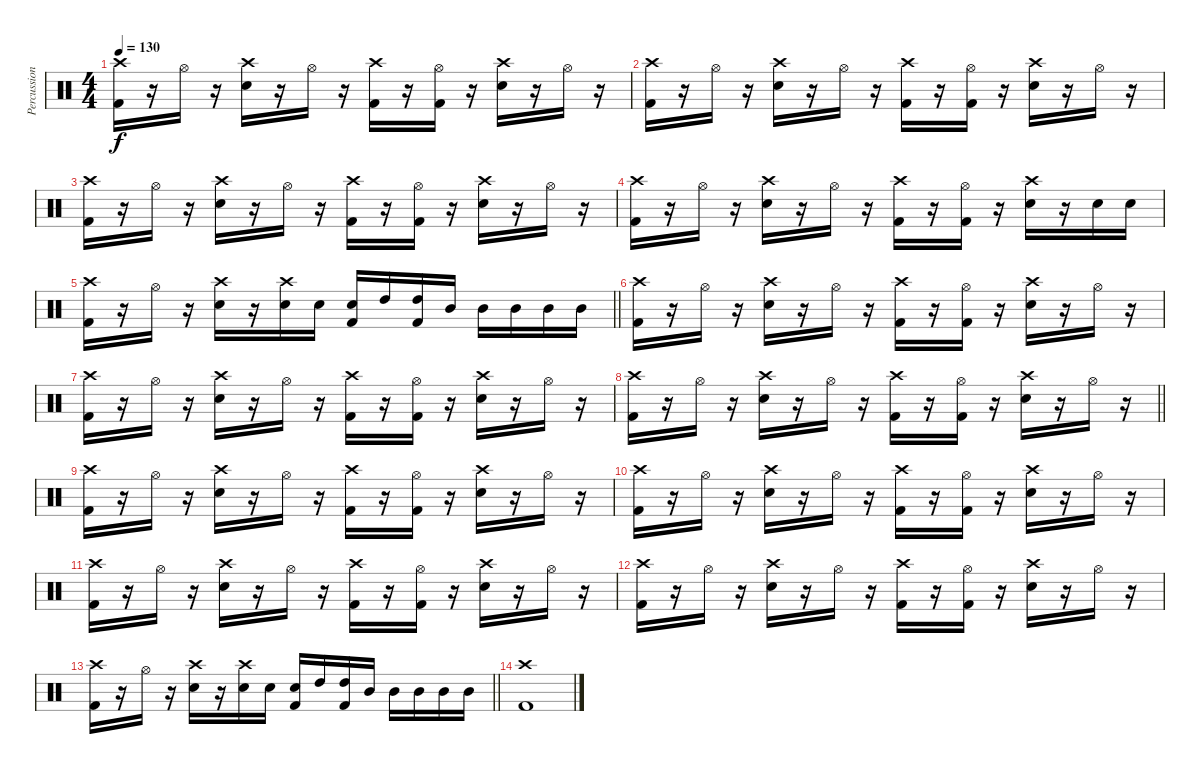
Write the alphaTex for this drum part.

\track ("Percussion" "Percussion") {instrument percussion}
\staff {score}
\articulation defaults
\ts (4 4)
\tempo 130
\clef neutral
\ks c
("Crash high (hit)" "Kick (hit) 2").16{dy f} r.16 "Hi-Hat (open)".16 r.16 ("Crash high (hit)" "Snare (hit) 2").16 r.16 "Hi-Hat (open)".16 r.16 ("Crash high (hit)" "Kick (hit) 2").16 r.16 ("Hi-Hat (open)" "Kick (hit) 2").16 r.16 ("Crash high (hit)" "Snare (hit) 2").16 r.16 "Hi-Hat (open)".16 r.16 |
("Crash high (hit)" "Kick (hit) 2").16 r.16 "Hi-Hat (open)".16 r.16 ("Crash high (hit)" "Snare (hit) 2").16 r.16 "Hi-Hat (open)".16 r.16 ("Crash high (hit)" "Kick (hit) 2").16 r.16 ("Hi-Hat (open)" "Kick (hit) 2").16 r.16 ("Crash high (hit)" "Snare (hit) 2").16 r.16 "Hi-Hat (open)".16 r.16 |
("Crash high (hit)" "Kick (hit) 2").16 r.16 "Hi-Hat (open)".16 r.16 ("Crash high (hit)" "Snare (hit) 2").16 r.16 "Hi-Hat (open)".16 r.16 ("Crash high (hit)" "Kick (hit) 2").16 r.16 ("Hi-Hat (open)" "Kick (hit) 2").16 r.16 ("Crash high (hit)" "Snare (hit) 2").16 r.16 "Hi-Hat (open)".16 r.16 |
("Crash high (hit)" "Kick (hit) 2").16 r.16 "Hi-Hat (open)".16 r.16 ("Crash high (hit)" "Snare (hit) 2").16 r.16 "Hi-Hat (open)".16 r.16 ("Crash high (hit)" "Kick (hit) 2").16 r.16 ("Hi-Hat (open)" "Kick (hit) 2").16 r.16 ("Crash high (hit)" "Snare (hit) 2").16 r.16 "Snare (hit) 2".16 "Snare (hit) 2".16 |
\barLineRight lightlight
("Crash high (hit)" "Kick (hit) 2").16 r.16 "Hi-Hat (open)".16 r.16 ("Crash high (hit)" "Snare (hit) 2").16 r.16 ("Crash high (hit)" "Snare (hit) 2").16 "Snare (hit) 2".16 ("Snare (hit) 2" "Kick (hit) 2").16 "High Tom (hit)".16 ("High Tom (hit)" "Kick (hit) 2").16 "Mid Tom (hit)".16 "Mid Tom (hit)".16 "Mid Tom (hit)".16 "Mid Tom (hit)".16 "Mid Tom (hit)".16 |
("Crash high (hit)" "Kick (hit) 2").16 r.16 "Hi-Hat (open)".16 r.16 ("Crash high (hit)" "Snare (hit) 2").16 r.16 "Hi-Hat (open)".16 r.16 ("Crash high (hit)" "Kick (hit) 2").16 r.16 ("Hi-Hat (open)" "Kick (hit) 2").16 r.16 ("Crash high (hit)" "Snare (hit) 2").16 r.16 "Hi-Hat (open)".16 r.16 |
("Crash high (hit)" "Kick (hit) 2").16 r.16 "Hi-Hat (open)".16 r.16 ("Crash high (hit)" "Snare (hit) 2").16 r.16 "Hi-Hat (open)".16 r.16 ("Crash high (hit)" "Kick (hit) 2").16 r.16 ("Hi-Hat (open)" "Kick (hit) 2").16 r.16 ("Crash high (hit)" "Snare (hit) 2").16 r.16 "Hi-Hat (open)".16 r.16 |
\barLineRight lightlight
("Crash high (hit)" "Kick (hit) 2").16 r.16 "Hi-Hat (open)".16 r.16 ("Crash high (hit)" "Snare (hit) 2").16 r.16 "Hi-Hat (open)".16 r.16 ("Crash high (hit)" "Kick (hit) 2").16 r.16 ("Hi-Hat (open)" "Kick (hit) 2").16 r.16 ("Crash high (hit)" "Snare (hit) 2").16 r.16 "Hi-Hat (open)".16 r.16 |
("Crash high (hit)" "Kick (hit) 2").16 r.16 "Hi-Hat (open)".16 r.16 ("Crash high (hit)" "Snare (hit) 2").16 r.16 "Hi-Hat (open)".16 r.16 ("Crash high (hit)" "Kick (hit) 2").16 r.16 ("Hi-Hat (open)" "Kick (hit) 2").16 r.16 ("Crash high (hit)" "Snare (hit) 2").16 r.16 "Hi-Hat (open)".16 r.16 |
("Crash high (hit)" "Kick (hit) 2").16 r.16 "Hi-Hat (open)".16 r.16 ("Crash high (hit)" "Snare (hit) 2").16 r.16 "Hi-Hat (open)".16 r.16 ("Crash high (hit)" "Kick (hit) 2").16 r.16 ("Hi-Hat (open)" "Kick (hit) 2").16 r.16 ("Crash high (hit)" "Snare (hit) 2").16 r.16 "Hi-Hat (open)".16 r.16 |
("Crash high (hit)" "Kick (hit) 2").16 r.16 "Hi-Hat (open)".16 r.16 ("Crash high (hit)" "Snare (hit) 2").16 r.16 "Hi-Hat (open)".16 r.16 ("Crash high (hit)" "Kick (hit) 2").16 r.16 ("Hi-Hat (open)" "Kick (hit) 2").16 r.16 ("Crash high (hit)" "Snare (hit) 2").16 r.16 "Hi-Hat (open)".16 r.16 |
("Crash high (hit)" "Kick (hit) 2").16 r.16 "Hi-Hat (open)".16 r.16 ("Crash high (hit)" "Snare (hit) 2").16 r.16 "Hi-Hat (open)".16 r.16 ("Crash high (hit)" "Kick (hit) 2").16 r.16 ("Hi-Hat (open)" "Kick (hit) 2").16 r.16 ("Crash high (hit)" "Snare (hit) 2").16 r.16 "Hi-Hat (open)".16 r.16 |
\barLineRight lightlight
("Crash high (hit)" "Kick (hit) 2").16 r.16 "Hi-Hat (open)".16 r.16 ("Crash high (hit)" "Snare (hit) 2").16 r.16 ("Crash high (hit)" "Snare (hit) 2").16 "Snare (hit) 2".16 ("Snare (hit) 2" "Kick (hit) 2").16 "High Tom (hit)".16 ("High Tom (hit)" "Kick (hit) 2").16 "Mid Tom (hit)".16 "Mid Tom (hit)".16 "Mid Tom (hit)".16 "Mid Tom (hit)".16 "Mid Tom (hit)".16 |
("Crash high (hit)" "Kick (hit) 2").1
